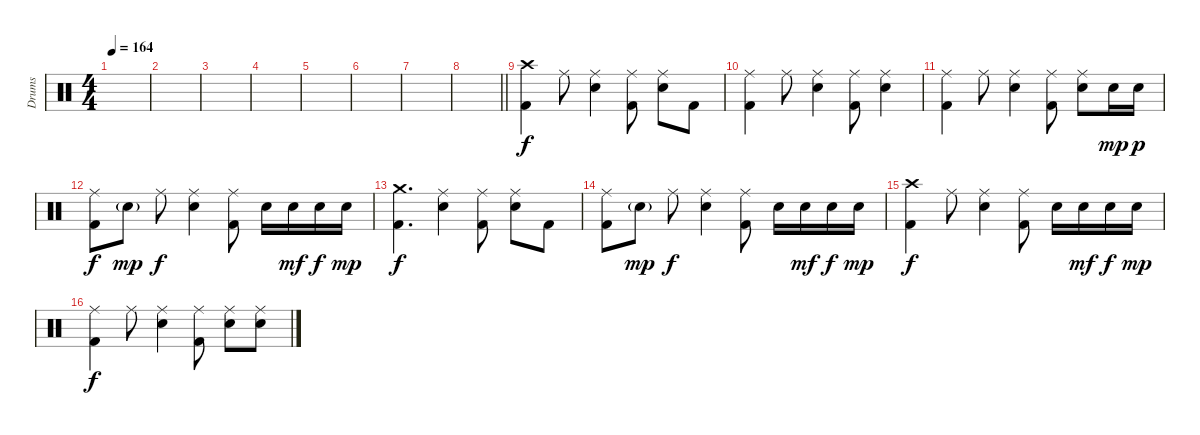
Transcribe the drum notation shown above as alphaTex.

\track ("Drums" "Drums") {instrument percussion}
\staff {score}
\articulation defaults
\ts (4 4)
\tempo 164
\clef neutral
\ks c
|
|
|
|
|
|
|
\barLineRight lightlight
|
\section ("" "")
("Crash high (hit)" "Kick (hit) 2").4 "Ride (middle)".8 ("Ride (middle)" "Electric Snare (hit)").4 ("Ride (middle)" "Kick (hit) 2").8 ("Ride (middle)" "Electric Snare (hit)").8 "Kick (hit) 2".8 |
("Ride (middle)" "Kick (hit) 2").4 "Ride (middle)".8 ("Ride (middle)" "Electric Snare (hit)").4 ("Ride (middle)" "Kick (hit) 2").8 ("Ride (middle)" "Electric Snare (hit)").4 |
("Ride (middle)" "Kick (hit) 2").4 "Ride (middle)".8 ("Ride (middle)" "Electric Snare (hit)").4 ("Ride (middle)" "Kick (hit) 2").8 ("Ride (middle)" "Electric Snare (hit)").8 "Electric Snare (hit)".16{dy mp} "Electric Snare (hit)".16{dy p} |
("Ride (middle)" "Kick (hit) 2").8{dy f} "Electric Snare (hit)"{g}.8{dy mp} "Ride (middle)".8{dy f} ("Ride (middle)" "Electric Snare (hit)").4 ("Ride (middle)" "Kick (hit) 2").8 "Electric Snare (hit)".16 "Electric Snare (hit)".16{dy mf} "Electric Snare (hit)".16{dy f} "Electric Snare (hit)".16{dy mp} |
("Crash medium (hit)" "Kick (hit) 2").4{d dy f} ("Ride (middle)" "Electric Snare (hit)").4 ("Ride (middle)" "Kick (hit) 2").8 ("Ride (middle)" "Electric Snare (hit)").8 "Kick (hit) 2".8 |
("Ride (middle)" "Kick (hit) 2").8 "Electric Snare (hit)"{g}.8{dy mp} "Ride (middle)".8{dy f} ("Ride (middle)" "Electric Snare (hit)").4 ("Ride (middle)" "Kick (hit) 2").8 "Electric Snare (hit)".16 "Electric Snare (hit)".16{dy mf} "Electric Snare (hit)".16{dy f} "Electric Snare (hit)".16{dy mp} |
("Crash high (hit)" "Kick (hit) 2").4{dy f} "Ride (middle)".8 ("Ride (middle)" "Electric Snare (hit)").4 ("Ride (middle)" "Kick (hit) 2").8 "Electric Snare (hit)".16 "Electric Snare (hit)".16{dy mf} "Electric Snare (hit)".16{dy f} "Electric Snare (hit)".16{dy mp} |
("Ride (middle)" "Kick (hit) 2").4{dy f} "Ride (middle)".8 ("Ride (middle)" "Electric Snare (hit)").4 ("Ride (middle)" "Kick (hit) 2").8 ("Ride (middle)" "Electric Snare (hit)").8 ("Ride (middle)" "Electric Snare (hit)").8
